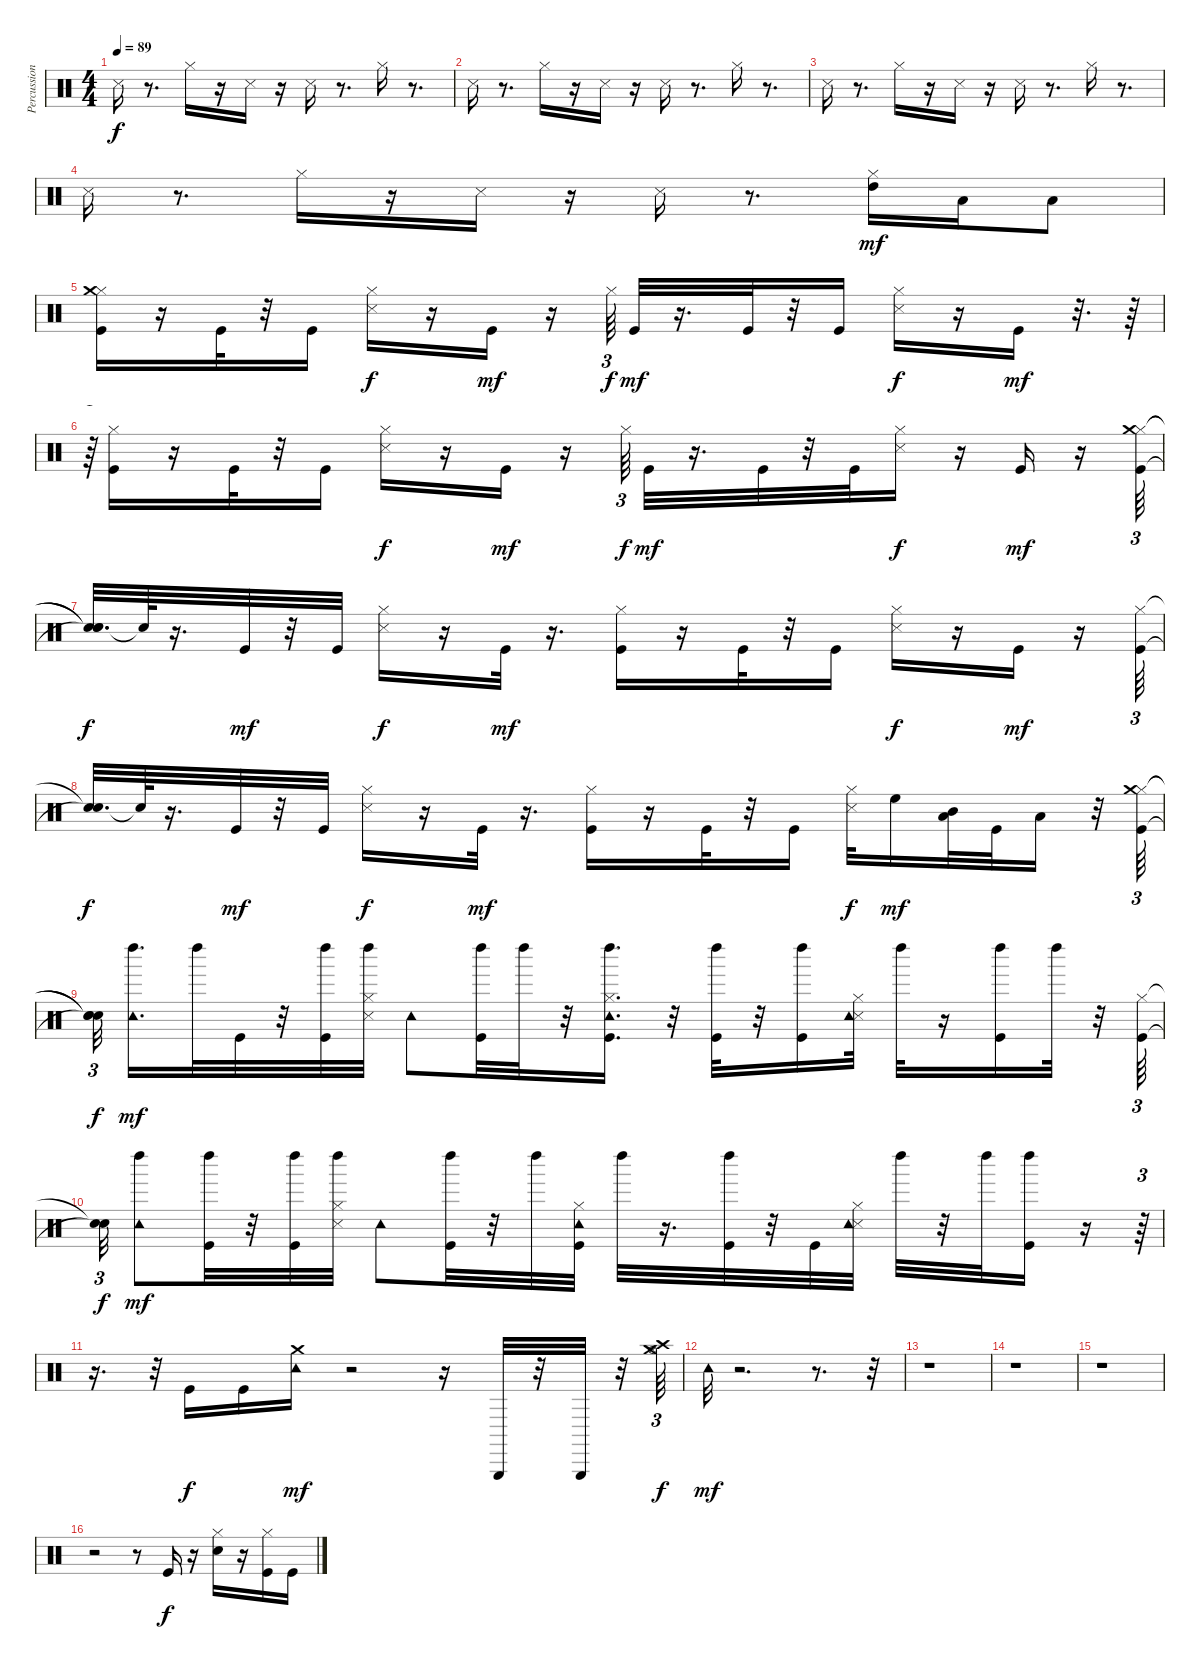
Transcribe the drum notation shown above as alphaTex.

\track ("Percussion" "Percussion") {instrument percussion}
\staff {score}
\articulation defaults
\ts (4 4)
\tempo 89
\clef neutral
\ks c "Metronome (hit)".16{dy f}
r.8{d} "Hi-Hat (closed)".16 r.16 "Metronome (hit)".16 r.16 "Metronome (hit)".16 r.8{d} "Hi-Hat (closed)".16 r.8{d} |
"Metronome (hit)".16 r.8{d} "Hi-Hat (closed)".16 r.16 "Metronome (hit)".16 r.16 "Metronome (hit)".16 r.8{d} "Hi-Hat (closed)".16 r.8{d} |
"Metronome (hit)".16 r.8{d} "Hi-Hat (closed)".16 r.16 "Metronome (hit)".16 r.16 "Metronome (hit)".16 r.8{d} "Hi-Hat (closed)".16 r.8{d} |
"Metronome (hit)".16 r.8{d} "Hi-Hat (closed)".16 r.16 "Metronome (hit)".16 r.16 "Metronome (hit)".16 r.8{d} ("Hi-Hat (closed)" "High Tom (hit)").16{dy mf} "Low Tom (hit)".16 "Low Floor Tom (hit)".8 |
("Hi-Hat (closed)" "Crash medium (hit)" "Kick (hit)").16 r.16 "Kick (hit)".32 r.32 "Kick (hit)".16 ("Hi-Hat (closed)" "Snare (side stick) 3").16{dy f} r.16 "Kick (hit)".16{dy mf} r.16 "Hi-Hat (closed)".64{tu (3 2) dy f} "Kick (hit)".32{dy mf} r.16{d} "Kick (hit)".32 r.32 "Kick (hit)".16 ("Hi-Hat (closed)" "Snare (side stick) 3").16{dy f} r.16 "Kick (hit)".16{dy mf} r.32{d} r.64 |
r.64{tu (3 2)} ("Hi-Hat (closed)" "Kick (hit)").16 r.16 "Kick (hit)".32 r.32 "Kick (hit)".16 ("Hi-Hat (closed)" "Snare (side stick) 3").16{dy f} r.16 "Kick (hit)".16{dy mf} r.16 "Hi-Hat (closed)".64{tu (3 2) dy f} "Kick (hit)".32{dy mf} r.16{d} "Kick (hit)".32 r.32 "Kick (hit)".32 ("Hi-Hat (closed)" "Snare (side stick) 3").16{dy f} r.16 "Kick (hit)".16{dy mf} r.16 ("Hi-Hat (closed)" "Crash medium (hit)" "Kick (hit)").64{tu (3 2)} |
("Snare (hit)"{t} "Snare (hit)"{t} "Snare (hit)"{t}).32{d dy f} "Snare (hit)"{t}.64 r.16{d} "Kick (hit)".32{dy mf} r.32 "Kick (hit)".32 ("Hi-Hat (closed)" "Snare (side stick) 3").16{dy f} r.16 "Kick (hit)".32{dy mf} r.16{d} ("Hi-Hat (closed)" "Kick (hit)").16 r.16 "Kick (hit)".32 r.32 "Kick (hit)".16 ("Hi-Hat (closed)" "Snare (side stick) 3").16{dy f} r.16 "Kick (hit)".16{dy mf} r.16 ("Hi-Hat (closed)" "Kick (hit)").64{tu (3 2)} |
("Snare (hit)"{t} "Snare (hit)"{t}).32{d dy f} "Snare (hit)"{t}.64 r.16{d} "Kick (hit)".32{dy mf} r.32 "Kick (hit)".32 ("Hi-Hat (closed)" "Snare (side stick) 3").16{dy f} r.16 "Kick (hit)".32{dy mf} r.16{d} ("Hi-Hat (closed)" "Kick (hit)").16 r.16 "Kick (hit)".32 r.32 "Kick (hit)".16 ("Hi-Hat (closed)" "Snare (side stick) 3").32{dy f} "High Floor Tom (hit)".16{dy mf} ("Low Tom (hit)" "Mid Tom (hit)").32 "Kick (hit)".32 "Low Floor Tom (hit)".16 r.32 ("Hi-Hat (closed)" "Crash medium (hit)" "Kick (hit)").64{tu (3 2)} |
("Snare (hit)"{t} "Snare (hit)"{t} "Snare (hit)"{t}).32{tu (3 2) dy f} ("Tambourine (hit)" "Left Maraca (hit)").16{d dy mf} "Left Maraca (hit)".32 "Kick (hit)".32 r.32 ("Kick (hit)" "Left Maraca (hit)").32 ("Hi-Hat (closed)" "Left Maraca (hit)" "Snare (side stick) 3").32 "Tambourine (hit)".8 ("Kick (hit)" "Left Maraca (hit)").32 "Left Maraca (hit)".32 r.32 ("Hi-Hat (closed)" "Tambourine (hit)" "Left Maraca (hit)" "Kick (hit)").16{d} r.32 ("Left Maraca (hit)" "Kick (hit)").32 r.32 ("Left Maraca (hit)" "Kick (hit)").16 ("Hi-Hat (closed)" "Snare (side stick) 3" "Tambourine (hit)").32 "Left Maraca (hit)".32 r.16 ("Kick (hit)" "Left Maraca (hit)").16 "Left Maraca (hit)".32 r.32 ("Hi-Hat (closed)" "Kick (hit)").64{tu (3 2)} |
("Snare (hit)"{t} "Snare (hit)"{t}).32{tu (3 2) dy f} ("Left Maraca (hit)" "Tambourine (hit)").8{dy mf} ("Left Maraca (hit)" "Kick (hit)").32 r.32 ("Kick (hit)" "Left Maraca (hit)").32 ("Hi-Hat (closed)" "Snare (side stick) 3" "Left Maraca (hit)").32 "Tambourine (hit)".8 ("Kick (hit)" "Left Maraca (hit)").32 r.32 "Left Maraca (hit)".32 ("Hi-Hat (closed)" "Tambourine (hit)" "Kick (hit)").32 "Left Maraca (hit)".32 r.16{d} ("Kick (hit)" "Left Maraca (hit)").32 r.32 "Kick (hit)".32 ("Hi-Hat (closed)" "Snare (side stick) 3" "Tambourine (hit)").32 "Left Maraca (hit)".32 r.32 "Left Maraca (hit)".32 ("Kick (hit)" "Left Maraca (hit)").16 r.16 r.64{tu (3 2)} |
r.16{d} r.32{tu (3 2)} "Kick (hit)".16{dy f} "Kick (hit)".16 ("Crash medium (hit)" "Tambourine (hit)").16{dy mf} r.2 r.16 "Triangle (hit)".32 r.32 "Triangle (hit)".32 r.32 ("Crash medium (hit)" "Crash high (hit)" "Hi-Hat (open)").64{tu (3 2) dy f} |
"Tambourine (hit)".32{dy mf} r.2{d} r.8{d} r.32 |
r.1 |
r.1 |
r.1 |
r.2 r.8 "Kick (hit)".16{dy f} r.16 ("Snare (hit) 2" "Hi-Hat (closed)").16 r.16 ("Kick (hit)" "Hi-Hat (closed)").16 "Kick (hit)".16
